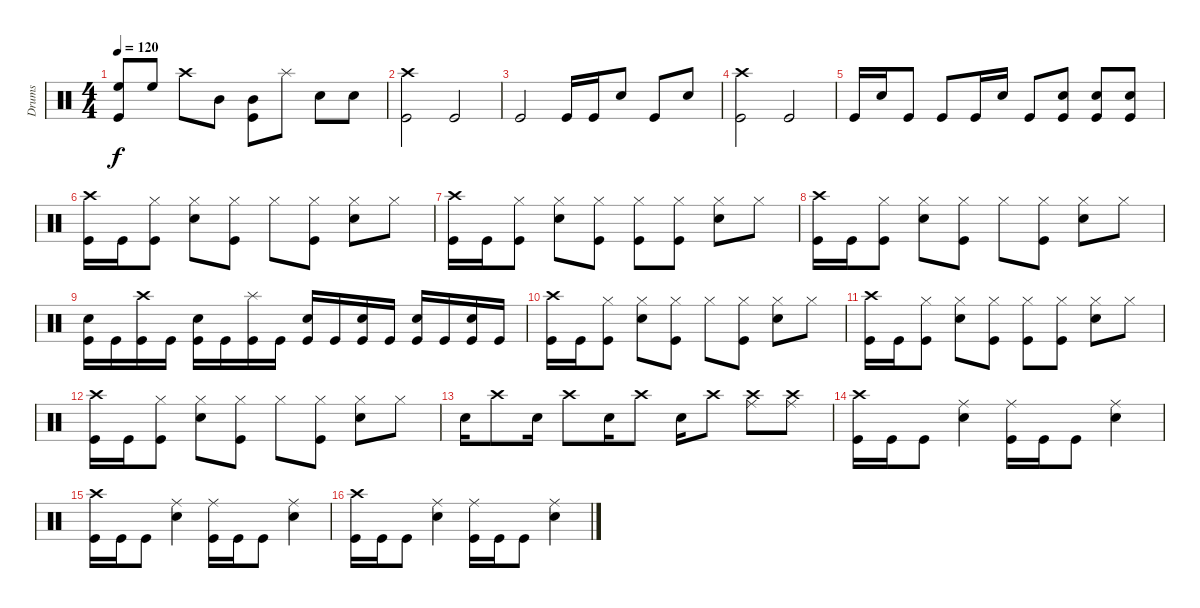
\track ("Drums" "Drums") {instrument percussion}
\staff {score}
\articulation defaults
\ts (4 4)
\tempo 120
\clef neutral
\ks c
("High Floor Tom (hit)" "Kick (hit)").8{dy f} "High Floor Tom (hit)".8 "Crash high (hit)".8 "Mid Tom (hit)".8 ("Mid Tom (hit)" "Kick (hit)").8 "Splash (hit)".8 "Snare (hit) 2".8 "Snare (hit) 2".8 |
("Crash high (hit)" "Kick (hit)").2 "Kick (hit)".2 |
"Kick (hit)".2 "Kick (hit)".16 "Kick (hit)".16 "Snare (hit) 2".8 "Kick (hit)".8 "Snare (hit) 2".8 |
("Crash high (hit)" "Kick (hit)").2 "Kick (hit)".2 |
"Kick (hit)".16 "Snare (hit) 2".16 "Kick (hit)".8 "Kick (hit)".8 "Kick (hit)".16 "Snare (hit) 2".16 "Kick (hit)".8 ("Snare (hit) 2" "Kick (hit)").8 ("Snare (hit) 2" "Kick (hit)").8 ("Snare (hit) 2" "Kick (hit)").8 |
("Crash high (hit)" "Kick (hit)").16 "Kick (hit)".16 ("Hi-Hat (closed)" "Kick (hit)").8 ("Hi-Hat (closed)" "Snare (hit) 2").8 ("Hi-Hat (closed)" "Kick (hit)").8 "Hi-Hat (closed)".8 ("Hi-Hat (closed)" "Kick (hit)").8 ("Hi-Hat (closed)" "Snare (hit) 2").8 "Hi-Hat (closed)".8 |
("Crash high (hit)" "Kick (hit)").16 "Kick (hit)".16 ("Hi-Hat (closed)" "Kick (hit)").8 ("Hi-Hat (closed)" "Snare (hit) 2").8 ("Hi-Hat (closed)" "Kick (hit)").8 ("Hi-Hat (closed)" "Kick (hit)").8 ("Hi-Hat (closed)" "Kick (hit)").8 ("Hi-Hat (closed)" "Snare (hit) 2").8 "Hi-Hat (closed)".8 |
("Crash high (hit)" "Kick (hit)").16 "Kick (hit)".16 ("Hi-Hat (closed)" "Kick (hit)").8 ("Hi-Hat (closed)" "Snare (hit) 2").8 ("Hi-Hat (closed)" "Kick (hit)").8 "Hi-Hat (closed)".8 ("Hi-Hat (closed)" "Kick (hit)").8 ("Hi-Hat (closed)" "Snare (hit) 2").8 "Hi-Hat (closed)".8 |
("Snare (hit) 2" "Kick (hit)").16 "Kick (hit)".16 ("Crash high (hit)" "Kick (hit)").16 "Kick (hit)".16 ("Snare (hit) 2" "Kick (hit)").16 "Kick (hit)".16 ("Splash (hit)" "Kick (hit)").16 "Kick (hit)".16 ("Snare (hit) 2" "Kick (hit)").16 "Kick (hit)".16 ("Snare (hit) 2" "Kick (hit)").16 "Kick (hit)".16 ("Snare (hit) 2" "Kick (hit)").16 "Kick (hit)".16 ("Snare (hit) 2" "Kick (hit)").16 "Kick (hit)".16 |
("Crash high (hit)" "Kick (hit)").16 "Kick (hit)".16 ("Hi-Hat (closed)" "Kick (hit)").8 ("Hi-Hat (closed)" "Snare (hit) 2").8 ("Hi-Hat (closed)" "Kick (hit)").8 "Hi-Hat (closed)".8 ("Hi-Hat (closed)" "Kick (hit)").8 ("Hi-Hat (closed)" "Snare (hit) 2").8 "Hi-Hat (closed)".8 |
("Crash high (hit)" "Kick (hit)").16 "Kick (hit)".16 ("Hi-Hat (closed)" "Kick (hit)").8 ("Hi-Hat (closed)" "Snare (hit) 2").8 ("Hi-Hat (closed)" "Kick (hit)").8 ("Hi-Hat (closed)" "Kick (hit)").8 ("Hi-Hat (closed)" "Kick (hit)").8 ("Hi-Hat (closed)" "Snare (hit) 2").8 "Hi-Hat (closed)".8 |
("Crash high (hit)" "Kick (hit)").16 "Kick (hit)".16 ("Hi-Hat (closed)" "Kick (hit)").8 ("Hi-Hat (closed)" "Snare (hit) 2").8 ("Hi-Hat (closed)" "Kick (hit)").8 "Hi-Hat (closed)".8 ("Hi-Hat (closed)" "Kick (hit)").8 ("Hi-Hat (closed)" "Snare (hit) 2").8 "Hi-Hat (closed)".8 |
"Snare (hit) 2".16 "Crash high (hit)".8 "Snare (hit) 2".16 "Crash high (hit)".8 "Snare (hit) 2".16 "Crash high (hit)".8 "Snare (hit) 2".16 "Crash high (hit)".8 ("Crash high (hit)" "Ride (middle)").8 ("Crash high (hit)" "Ride (middle)").8 |
("Crash high (hit)" "Kick (hit)").16 "Kick (hit)".16 "Kick (hit)".8 ("Ride (middle)" "Snare (hit) 2").4 ("Ride (middle)" "Kick (hit)").16 "Kick (hit)".16 "Kick (hit)".8 ("Ride (middle)" "Snare (hit) 2").4 |
("Crash high (hit)" "Kick (hit)").16 "Kick (hit)".16 "Kick (hit)".8 ("Ride (middle)" "Snare (hit) 2").4 ("Ride (middle)" "Kick (hit)").16 "Kick (hit)".16 "Kick (hit)".8 ("Ride (middle)" "Snare (hit) 2").4 |
("Crash high (hit)" "Kick (hit)").16 "Kick (hit)".16 "Kick (hit)".8 ("Ride (middle)" "Snare (hit) 2").4 ("Ride (middle)" "Kick (hit)").16 "Kick (hit)".16 "Kick (hit)".8 ("Ride (middle)" "Snare (hit) 2").4
